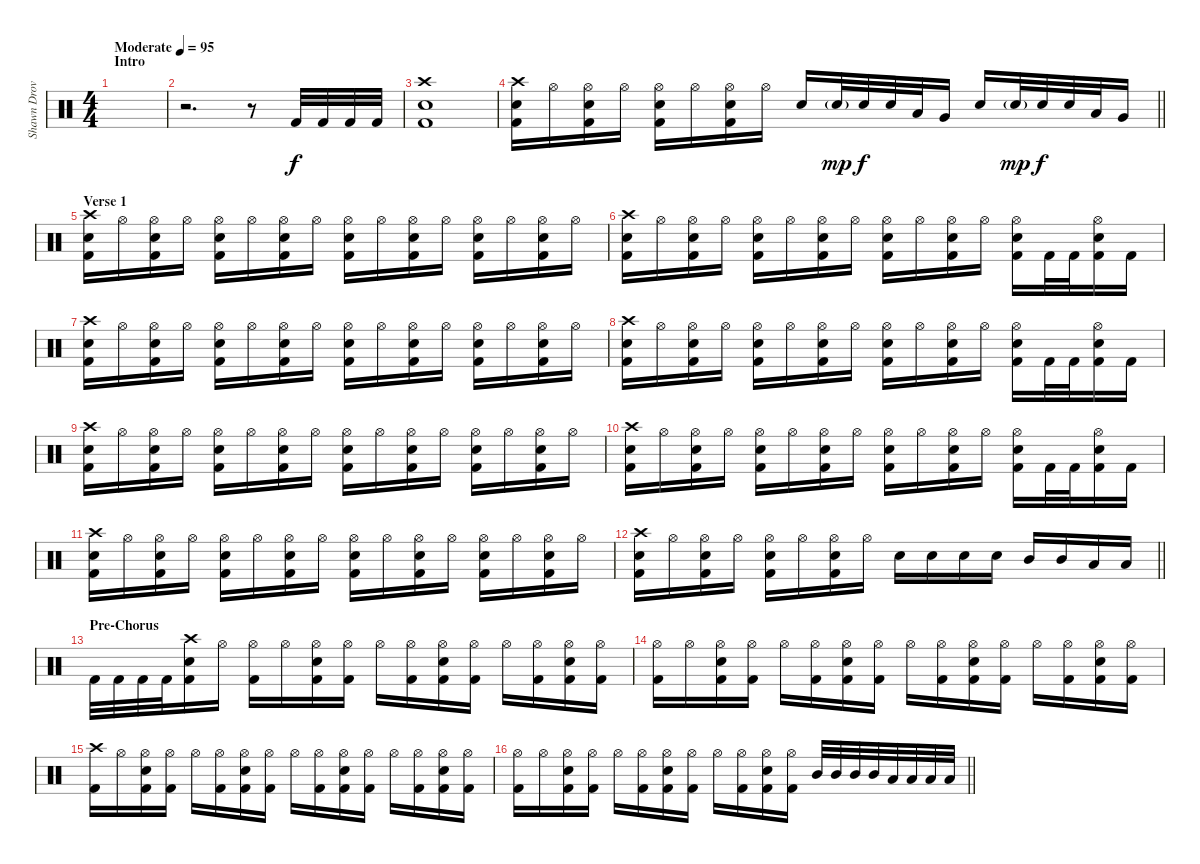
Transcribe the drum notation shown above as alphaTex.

\track ("Shawn Drover " "Shawn Drov") {instrument percussion}
\staff {score}
\articulation defaults
\ts (4 4)
\section ("" "Intro")
\tempo (95 "Moderate")
\clef neutral
\ks c
|
r.2{d} r.8 "Kick (hit) 2".32 "Kick (hit) 2".32 "Kick (hit) 2".32 "Kick (hit) 2".32 |
("Kick (hit) 2" "Snare (hit) 2" "Crash high (hit)").1 |
\barLineRight lightlight
("Kick (hit) 2" "Snare (hit) 2" "Crash high (hit)").16 "Hi-Hat (open)".16 ("Kick (hit) 2" "Snare (hit) 2" "Hi-Hat (open)").16 "Hi-Hat (open)".16 ("Kick (hit) 2" "Snare (hit) 2" "Hi-Hat (open)").16 "Hi-Hat (open)".16 ("Kick (hit) 2" "Snare (hit) 2" "Hi-Hat (open)").16 "Hi-Hat (open)".16 "Snare (hit) 2".16 "Snare (hit) 2"{g}.32{dy mp} "Snare (hit) 2".32{dy f} "Snare (hit) 2".32 "Low Tom (hit)".32 "Very Low Tom (hit)".16 "Snare (hit) 2".16 "Snare (hit) 2"{g}.32{dy mp} "Snare (hit) 2".32{dy f} "Snare (hit) 2".32 "Low Tom (hit)".32 "Very Low Tom (hit)".16 |
\section ("" "Verse 1")
("Kick (hit) 2" "Snare (hit) 2" "Crash high (hit)").16 "Hi-Hat (open)".16 ("Kick (hit) 2" "Snare (hit) 2" "Hi-Hat (open)").16 "Hi-Hat (open)".16 ("Kick (hit) 2" "Snare (hit) 2" "Hi-Hat (open)").16 "Hi-Hat (open)".16 ("Kick (hit) 2" "Snare (hit) 2" "Hi-Hat (open)").16 "Hi-Hat (open)".16 ("Kick (hit) 2" "Snare (hit) 2" "Hi-Hat (open)").16 "Hi-Hat (open)".16 ("Kick (hit) 2" "Snare (hit) 2" "Hi-Hat (open)").16 "Hi-Hat (open)".16 ("Kick (hit) 2" "Snare (hit) 2" "Hi-Hat (open)").16 "Hi-Hat (open)".16 ("Kick (hit) 2" "Snare (hit) 2" "Hi-Hat (open)").16 "Hi-Hat (open)".16 |
("Kick (hit) 2" "Snare (hit) 2" "Crash high (hit)").16 "Hi-Hat (open)".16 ("Kick (hit) 2" "Snare (hit) 2" "Hi-Hat (open)").16 "Hi-Hat (open)".16 ("Kick (hit) 2" "Snare (hit) 2" "Hi-Hat (open)").16 "Hi-Hat (open)".16 ("Kick (hit) 2" "Snare (hit) 2" "Hi-Hat (open)").16 "Hi-Hat (open)".16 ("Kick (hit) 2" "Snare (hit) 2" "Hi-Hat (open)").16 "Hi-Hat (open)".16 ("Kick (hit) 2" "Snare (hit) 2" "Hi-Hat (open)").16 "Hi-Hat (open)".16 ("Kick (hit) 2" "Snare (hit) 2" "Hi-Hat (open)").16 "Kick (hit) 2".32 "Kick (hit) 2".32 ("Kick (hit) 2" "Snare (hit) 2" "Hi-Hat (open)").16 "Kick (hit) 2".16 |
("Kick (hit) 2" "Snare (hit) 2" "Crash high (hit)").16 "Hi-Hat (open)".16 ("Kick (hit) 2" "Snare (hit) 2" "Hi-Hat (open)").16 "Hi-Hat (open)".16 ("Kick (hit) 2" "Snare (hit) 2" "Hi-Hat (open)").16 "Hi-Hat (open)".16 ("Kick (hit) 2" "Snare (hit) 2" "Hi-Hat (open)").16 "Hi-Hat (open)".16 ("Kick (hit) 2" "Snare (hit) 2" "Hi-Hat (open)").16 "Hi-Hat (open)".16 ("Kick (hit) 2" "Snare (hit) 2" "Hi-Hat (open)").16 "Hi-Hat (open)".16 ("Kick (hit) 2" "Snare (hit) 2" "Hi-Hat (open)").16 "Hi-Hat (open)".16 ("Kick (hit) 2" "Snare (hit) 2" "Hi-Hat (open)").16 "Hi-Hat (open)".16 |
("Kick (hit) 2" "Snare (hit) 2" "Crash high (hit)").16 "Hi-Hat (open)".16 ("Kick (hit) 2" "Snare (hit) 2" "Hi-Hat (open)").16 "Hi-Hat (open)".16 ("Kick (hit) 2" "Snare (hit) 2" "Hi-Hat (open)").16 "Hi-Hat (open)".16 ("Kick (hit) 2" "Snare (hit) 2" "Hi-Hat (open)").16 "Hi-Hat (open)".16 ("Kick (hit) 2" "Snare (hit) 2" "Hi-Hat (open)").16 "Hi-Hat (open)".16 ("Kick (hit) 2" "Snare (hit) 2" "Hi-Hat (open)").16 "Hi-Hat (open)".16 ("Kick (hit) 2" "Snare (hit) 2" "Hi-Hat (open)").16 "Kick (hit) 2".32 "Kick (hit) 2".32 ("Kick (hit) 2" "Snare (hit) 2" "Hi-Hat (open)").16 "Kick (hit) 2".16 |
("Kick (hit) 2" "Snare (hit) 2" "Crash high (hit)").16 "Hi-Hat (open)".16 ("Kick (hit) 2" "Snare (hit) 2" "Hi-Hat (open)").16 "Hi-Hat (open)".16 ("Kick (hit) 2" "Snare (hit) 2" "Hi-Hat (open)").16 "Hi-Hat (open)".16 ("Kick (hit) 2" "Snare (hit) 2" "Hi-Hat (open)").16 "Hi-Hat (open)".16 ("Kick (hit) 2" "Snare (hit) 2" "Hi-Hat (open)").16 "Hi-Hat (open)".16 ("Kick (hit) 2" "Snare (hit) 2" "Hi-Hat (open)").16 "Hi-Hat (open)".16 ("Kick (hit) 2" "Snare (hit) 2" "Hi-Hat (open)").16 "Hi-Hat (open)".16 ("Kick (hit) 2" "Snare (hit) 2" "Hi-Hat (open)").16 "Hi-Hat (open)".16 |
("Kick (hit) 2" "Snare (hit) 2" "Crash high (hit)").16 "Hi-Hat (open)".16 ("Kick (hit) 2" "Snare (hit) 2" "Hi-Hat (open)").16 "Hi-Hat (open)".16 ("Kick (hit) 2" "Snare (hit) 2" "Hi-Hat (open)").16 "Hi-Hat (open)".16 ("Kick (hit) 2" "Snare (hit) 2" "Hi-Hat (open)").16 "Hi-Hat (open)".16 ("Kick (hit) 2" "Snare (hit) 2" "Hi-Hat (open)").16 "Hi-Hat (open)".16 ("Kick (hit) 2" "Snare (hit) 2" "Hi-Hat (open)").16 "Hi-Hat (open)".16 ("Kick (hit) 2" "Snare (hit) 2" "Hi-Hat (open)").16 "Kick (hit) 2".32 "Kick (hit) 2".32 ("Kick (hit) 2" "Snare (hit) 2" "Hi-Hat (open)").16 "Kick (hit) 2".16 |
("Kick (hit) 2" "Snare (hit) 2" "Crash high (hit)").16 "Hi-Hat (open)".16 ("Kick (hit) 2" "Snare (hit) 2" "Hi-Hat (open)").16 "Hi-Hat (open)".16 ("Kick (hit) 2" "Snare (hit) 2" "Hi-Hat (open)").16 "Hi-Hat (open)".16 ("Kick (hit) 2" "Snare (hit) 2" "Hi-Hat (open)").16 "Hi-Hat (open)".16 ("Kick (hit) 2" "Snare (hit) 2" "Hi-Hat (open)").16 "Hi-Hat (open)".16 ("Kick (hit) 2" "Snare (hit) 2" "Hi-Hat (open)").16 "Hi-Hat (open)".16 ("Kick (hit) 2" "Snare (hit) 2" "Hi-Hat (open)").16 "Hi-Hat (open)".16 ("Kick (hit) 2" "Snare (hit) 2" "Hi-Hat (open)").16 "Hi-Hat (open)".16 |
\barLineRight lightlight
("Kick (hit) 2" "Snare (hit) 2" "Crash high (hit)").16 "Hi-Hat (open)".16 ("Kick (hit) 2" "Snare (hit) 2" "Hi-Hat (open)").16 "Hi-Hat (open)".16 ("Kick (hit) 2" "Snare (hit) 2" "Hi-Hat (open)").16 "Hi-Hat (open)".16 ("Kick (hit) 2" "Snare (hit) 2" "Hi-Hat (open)").16 "Hi-Hat (open)".16 "Snare (hit) 2".16 "Snare (hit) 2".16 "Snare (hit) 2".16 "Snare (hit) 2".16 "Mid Tom (hit)".16 "Mid Tom (hit)".16 "Low Tom (hit)".16 "Low Tom (hit)".16 |
\section ("" "Pre-Chorus")
"Kick (hit) 2".32 "Kick (hit) 2".32 "Kick (hit) 2".32 "Kick (hit) 2".32 ("Kick (hit) 2" "Snare (hit) 2" "Crash high (hit)").16 "Hi-Hat (open)".16 ("Kick (hit) 2" "Hi-Hat (open)").16 "Hi-Hat (open)".16 ("Kick (hit) 2" "Snare (hit) 2" "Hi-Hat (open)").16 ("Kick (hit) 2" "Hi-Hat (open)").16 "Hi-Hat (open)".16 ("Kick (hit) 2" "Hi-Hat (open)").16 ("Kick (hit) 2" "Snare (hit) 2" "Hi-Hat (open)").16 ("Kick (hit) 2" "Hi-Hat (open)").16 "Hi-Hat (open)".16 ("Kick (hit) 2" "Hi-Hat (open)").16 ("Kick (hit) 2" "Snare (hit) 2" "Hi-Hat (open)").16 ("Kick (hit) 2" "Hi-Hat (open)").16 |
("Kick (hit) 2" "Hi-Hat (open)").16 "Hi-Hat (open)".16 ("Kick (hit) 2" "Snare (hit) 2" "Hi-Hat (open)").16 ("Kick (hit) 2" "Hi-Hat (open)").16 "Hi-Hat (open)".16 ("Kick (hit) 2" "Hi-Hat (open)").16 ("Kick (hit) 2" "Snare (hit) 2" "Hi-Hat (open)").16 ("Kick (hit) 2" "Hi-Hat (open)").16 "Hi-Hat (open)".16 ("Kick (hit) 2" "Hi-Hat (open)").16 ("Kick (hit) 2" "Snare (hit) 2" "Hi-Hat (open)").16 ("Kick (hit) 2" "Hi-Hat (open)").16 "Hi-Hat (open)".16 ("Kick (hit) 2" "Hi-Hat (open)").16 ("Kick (hit) 2" "Snare (hit) 2" "Hi-Hat (open)").16 ("Kick (hit) 2" "Hi-Hat (open)").16 |
("Kick (hit) 2" "Crash high (hit)").16 "Hi-Hat (open)".16 ("Kick (hit) 2" "Snare (hit) 2" "Hi-Hat (open)").16 ("Kick (hit) 2" "Hi-Hat (open)").16 "Hi-Hat (open)".16 ("Kick (hit) 2" "Hi-Hat (open)").16 ("Kick (hit) 2" "Snare (hit) 2" "Hi-Hat (open)").16 ("Kick (hit) 2" "Hi-Hat (open)").16 "Hi-Hat (open)".16 ("Kick (hit) 2" "Hi-Hat (open)").16 ("Kick (hit) 2" "Snare (hit) 2" "Hi-Hat (open)").16 ("Kick (hit) 2" "Hi-Hat (open)").16 "Hi-Hat (open)".16 ("Kick (hit) 2" "Hi-Hat (open)").16 ("Kick (hit) 2" "Snare (hit) 2" "Hi-Hat (open)").16 ("Kick (hit) 2" "Hi-Hat (open)").16 |
\barLineRight lightlight
("Kick (hit) 2" "Hi-Hat (open)").16 "Hi-Hat (open)".16 ("Kick (hit) 2" "Snare (hit) 2" "Hi-Hat (open)").16 ("Kick (hit) 2" "Hi-Hat (open)").16 "Hi-Hat (open)".16 ("Kick (hit) 2" "Hi-Hat (open)").16 ("Kick (hit) 2" "Snare (hit) 2" "Hi-Hat (open)").16 ("Kick (hit) 2" "Hi-Hat (open)").16 "Hi-Hat (open)".16 ("Kick (hit) 2" "Hi-Hat (open)").16 ("Kick (hit) 2" "Snare (hit) 2" "Hi-Hat (open)").16 ("Kick (hit) 2" "Hi-Hat (open)").16 "Mid Tom (hit)".32 "Mid Tom (hit)".32 "Mid Tom (hit)".32 "Mid Tom (hit)".32 "Low Tom (hit)".32 "Low Tom (hit)".32 "Low Tom (hit)".32 "Low Tom (hit)".32
